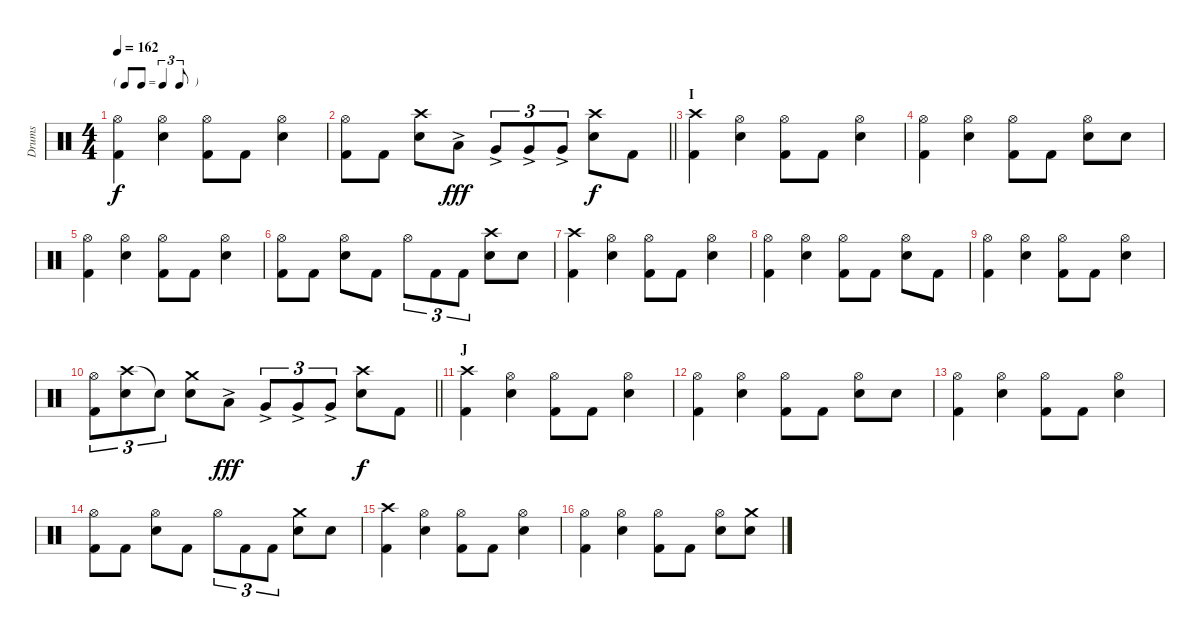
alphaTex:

\track ("Drums" "Drums") {instrument percussion}
\staff {score}
\articulation defaults
\ts (4 4)
\tf triplet8th
\tempo 162
\clef neutral
\ks c
("Hi-Hat (open)" "Kick (hit) 2").4{dy f} ("Hi-Hat (open)" "Snare (hit) 2").4 ("Hi-Hat (open)" "Kick (hit) 2").8 "Kick (hit) 2".8 ("Hi-Hat (open)" "Snare (hit) 2").4 |
\barLineRight lightlight
("Hi-Hat (open)" "Kick (hit) 2").8 "Kick (hit) 2".8 ("Crash high (hit)" "Snare (hit) 2").8 "Low Tom (hit)"{ac}.8{dy fff} "Very Low Tom (hit)"{ac}.8{tu (3 2)} "Very Low Tom (hit)"{ac}.8{tu (3 2)} "Very Low Tom (hit)"{ac}.8{tu (3 2)} ("Crash high (hit)" "Snare (hit) 2").8{dy f} "Kick (hit) 2".8 |
\section ("" "I")
("Crash high (hit)" "Kick (hit) 2").4 ("Hi-Hat (open)" "Snare (hit) 2").4 ("Hi-Hat (open)" "Kick (hit) 2").8 "Kick (hit) 2".8 ("Hi-Hat (open)" "Snare (hit) 2").4 |
("Hi-Hat (open)" "Kick (hit) 2").4 ("Hi-Hat (open)" "Snare (hit) 2").4 ("Hi-Hat (open)" "Kick (hit) 2").8 "Kick (hit) 2".8 ("Hi-Hat (open)" "Snare (hit) 2").8 "Snare (hit) 2".8 |
("Hi-Hat (open)" "Kick (hit) 2").4 ("Hi-Hat (open)" "Snare (hit) 2").4 ("Hi-Hat (open)" "Kick (hit) 2").8 "Kick (hit) 2".8 ("Hi-Hat (open)" "Snare (hit) 2").4 |
("Hi-Hat (open)" "Kick (hit) 2").8 "Kick (hit) 2".8 ("Hi-Hat (open)" "Snare (hit) 2").8 "Kick (hit) 2".8 "Hi-Hat (open)".8{tu (3 2)} "Kick (hit) 2".8{tu (3 2)} "Kick (hit) 2".8{tu (3 2)} ("Crash high (hit)" "Snare (hit) 2").8 "Snare (hit) 2".8 |
("Crash high (hit)" "Kick (hit) 2").4 ("Hi-Hat (open)" "Snare (hit) 2").4 ("Hi-Hat (open)" "Kick (hit) 2").8 "Kick (hit) 2".8 ("Hi-Hat (open)" "Snare (hit) 2").4 |
("Hi-Hat (open)" "Kick (hit) 2").4 ("Hi-Hat (open)" "Snare (hit) 2").4 ("Hi-Hat (open)" "Kick (hit) 2").8 "Kick (hit) 2".8 ("Hi-Hat (open)" "Snare (hit) 2").8 "Kick (hit) 2".8 |
("Hi-Hat (open)" "Kick (hit) 2").4 ("Hi-Hat (open)" "Snare (hit) 2").4 ("Hi-Hat (open)" "Kick (hit) 2").8 "Kick (hit) 2".8 ("Hi-Hat (open)" "Snare (hit) 2").4 |
\barLineRight lightlight
("Hi-Hat (open)" "Kick (hit) 2").8{tu (3 2)} ("Crash high (hit)" "Snare (hit) 2").8{tu (3 2)} "Snare (hit)"{t}.8{tu (3 2)} ("Crash medium (hit)" "Snare (hit) 2").8 "Low Tom (hit)"{ac}.8{dy fff} "Very Low Tom (hit)"{ac}.8{tu (3 2)} "Very Low Tom (hit)"{ac}.8{tu (3 2)} "Very Low Tom (hit)"{ac}.8{tu (3 2)} ("Crash high (hit)" "Snare (hit) 2").8{dy f} "Kick (hit) 2".8 |
\section ("" "J")
("Crash high (hit)" "Kick (hit) 2").4 ("Hi-Hat (open)" "Snare (hit) 2").4 ("Hi-Hat (open)" "Kick (hit) 2").8 "Kick (hit) 2".8 ("Hi-Hat (open)" "Snare (hit) 2").4 |
("Hi-Hat (open)" "Kick (hit) 2").4 ("Hi-Hat (open)" "Snare (hit) 2").4 ("Hi-Hat (open)" "Kick (hit) 2").8 "Kick (hit) 2".8 ("Hi-Hat (open)" "Snare (hit) 2").8 "Snare (hit) 2".8 |
("Hi-Hat (open)" "Kick (hit) 2").4 ("Hi-Hat (open)" "Snare (hit) 2").4 ("Hi-Hat (open)" "Kick (hit) 2").8 "Kick (hit) 2".8 ("Hi-Hat (open)" "Snare (hit) 2").4 |
("Hi-Hat (open)" "Kick (hit) 2").8 "Kick (hit) 2".8 ("Hi-Hat (open)" "Snare (hit) 2").8 "Kick (hit) 2".8 "Hi-Hat (open)".8{tu (3 2)} "Kick (hit) 2".8{tu (3 2)} "Kick (hit) 2".8{tu (3 2)} ("Crash medium (hit)" "Snare (hit) 2").8 "Snare (hit) 2".8 |
("Crash high (hit)" "Kick (hit) 2").4 ("Hi-Hat (open)" "Snare (hit) 2").4 ("Hi-Hat (open)" "Kick (hit) 2").8 "Kick (hit) 2".8 ("Hi-Hat (open)" "Snare (hit) 2").4 |
("Hi-Hat (open)" "Kick (hit) 2").4 ("Hi-Hat (open)" "Snare (hit) 2").4 ("Hi-Hat (open)" "Kick (hit) 2").8 "Kick (hit) 2".8 ("Hi-Hat (open)" "Snare (hit) 2").8 ("Crash medium (hit)" "Snare (hit) 2").8
